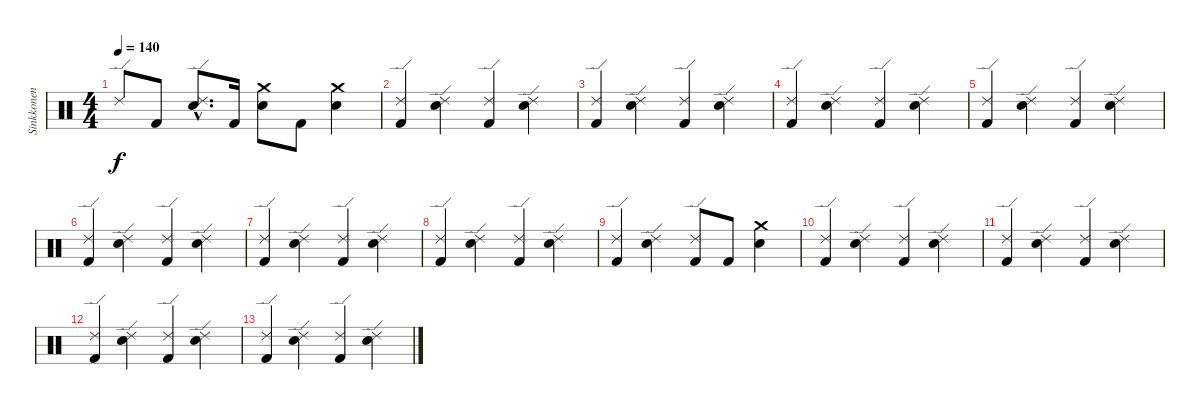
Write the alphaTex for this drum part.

\track ("Sinkkonen" "Sinkkonen") {instrument percussion}
\staff {score}
\articulation defaults
\ts (4 4)
\tempo 140
\clef neutral
\ks c "Ride (edge) 2".8{dy f} "Kick (hit) 2".8
("Ride (edge) 2"{hac} "Snare (hit) 2"{hac}).8{d} "Kick (hit) 2".16 ("Crash medium (hit)" "Snare (hit) 2").8 "Kick (hit) 2".8 ("Crash medium (hit)" "Snare (hit) 2").4 |
("Kick (hit) 2" "Ride (edge) 2").4{volume 6} ("Ride (edge) 2" "Snare (hit) 2").4 ("Kick (hit) 2" "Ride (edge) 2").4 ("Ride (edge) 2" "Snare (hit) 2").4 |
("Kick (hit) 2" "Ride (edge) 2").4 ("Ride (edge) 2" "Snare (hit) 2").4 ("Kick (hit) 2" "Ride (edge) 2").4 ("Ride (edge) 2" "Snare (hit) 2").4 |
("Kick (hit) 2" "Ride (edge) 2").4 ("Ride (edge) 2" "Snare (hit) 2").4 ("Kick (hit) 2" "Ride (edge) 2").4 ("Ride (edge) 2" "Snare (hit) 2").4 |
("Kick (hit) 2" "Ride (edge) 2").4 ("Ride (edge) 2" "Snare (hit) 2").4 ("Kick (hit) 2" "Ride (edge) 2").4 ("Ride (edge) 2" "Snare (hit) 2").4 |
("Kick (hit) 2" "Ride (edge) 2").4{volume 3} ("Ride (edge) 2" "Snare (hit) 2").4 ("Kick (hit) 2" "Ride (edge) 2").4 ("Ride (edge) 2" "Snare (hit) 2").4 |
("Kick (hit) 2" "Ride (edge) 2").4 ("Ride (edge) 2" "Snare (hit) 2").4 ("Kick (hit) 2" "Ride (edge) 2").4 ("Ride (edge) 2" "Snare (hit) 2").4 |
("Kick (hit) 2" "Ride (edge) 2").4 ("Ride (edge) 2" "Snare (hit) 2").4 ("Kick (hit) 2" "Ride (edge) 2").4 ("Ride (edge) 2" "Snare (hit) 2").4 |
("Kick (hit) 2" "Ride (edge) 2").4 ("Ride (edge) 2" "Snare (hit) 2").4 ("Kick (hit) 2" "Ride (edge) 2").8 "Kick (hit) 2".8 ("Crash medium (hit)" "Snare (hit) 2").4 |
("Kick (hit) 2" "Ride (edge) 2").4{volume 0} ("Ride (edge) 2" "Snare (hit) 2").4 ("Kick (hit) 2" "Ride (edge) 2").4 ("Ride (edge) 2" "Snare (hit) 2").4 |
("Kick (hit) 2" "Ride (edge) 2").4 ("Ride (edge) 2" "Snare (hit) 2").4 ("Kick (hit) 2" "Ride (edge) 2").4 ("Ride (edge) 2" "Snare (hit) 2").4 |
("Kick (hit) 2" "Ride (edge) 2").4 ("Ride (edge) 2" "Snare (hit) 2").4 ("Kick (hit) 2" "Ride (edge) 2").4 ("Ride (edge) 2" "Snare (hit) 2").4 |
("Kick (hit) 2" "Ride (edge) 2").4 ("Ride (edge) 2" "Snare (hit) 2").4 ("Kick (hit) 2" "Ride (edge) 2").4 ("Ride (edge) 2" "Snare (hit) 2").4
